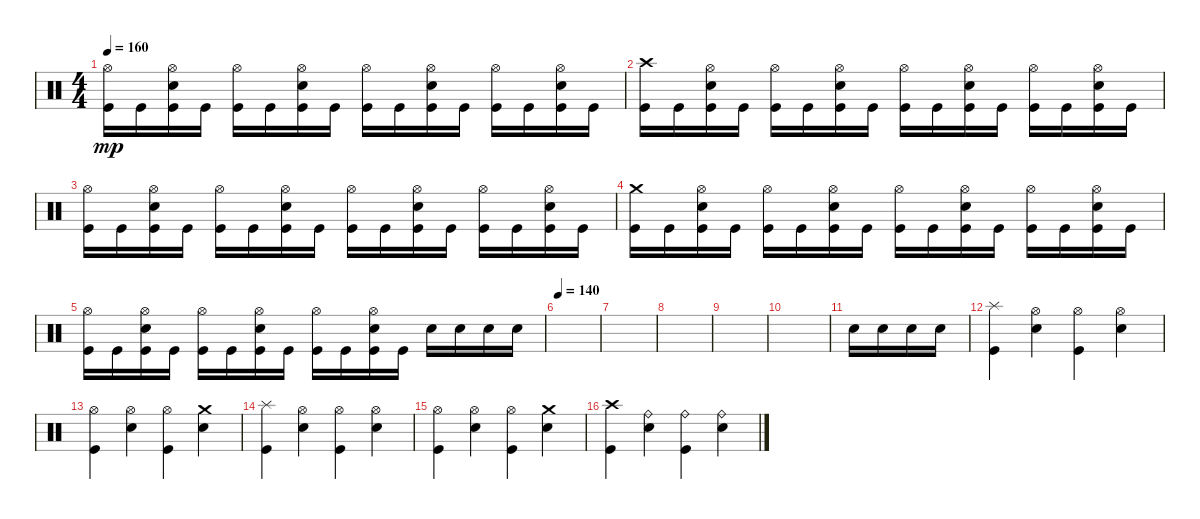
\track "" {instrument percussion}
\staff {score}
\articulation defaults
\ts (4 4)
\tempo 160
\clef neutral
\ks c
("Kick (hit)" "Hi-Hat (open)").16{dy mp} "Kick (hit)".16 ("Snare (hit) 2" "Hi-Hat (open)" "Kick (hit)").16 "Kick (hit)".16 ("Kick (hit)" "Hi-Hat (open)").16 "Kick (hit)".16 ("Snare (hit) 2" "Hi-Hat (open)" "Kick (hit)").16 "Kick (hit)".16 ("Kick (hit)" "Hi-Hat (open)").16 "Kick (hit)".16 ("Snare (hit) 2" "Hi-Hat (open)" "Kick (hit)").16 "Kick (hit)".16 ("Kick (hit)" "Hi-Hat (open)").16 "Kick (hit)".16 ("Snare (hit) 2" "Hi-Hat (open)" "Kick (hit)").16 "Kick (hit)".16 |
("Kick (hit)" "Crash high (hit)").16 "Kick (hit)".16 ("Snare (hit) 2" "Hi-Hat (open)" "Kick (hit)").16 "Kick (hit)".16 ("Kick (hit)" "Hi-Hat (open)").16 "Kick (hit)".16 ("Snare (hit) 2" "Hi-Hat (open)" "Kick (hit)").16 "Kick (hit)".16 ("Kick (hit)" "Hi-Hat (open)").16 "Kick (hit)".16 ("Snare (hit) 2" "Hi-Hat (open)" "Kick (hit)").16 "Kick (hit)".16 ("Kick (hit)" "Hi-Hat (open)").16 "Kick (hit)".16 ("Snare (hit) 2" "Hi-Hat (open)" "Kick (hit)").16 "Kick (hit)".16 |
("Kick (hit)" "Hi-Hat (open)").16 "Kick (hit)".16 ("Snare (hit) 2" "Hi-Hat (open)" "Kick (hit)").16 "Kick (hit)".16 ("Kick (hit)" "Hi-Hat (open)").16 "Kick (hit)".16 ("Snare (hit) 2" "Hi-Hat (open)" "Kick (hit)").16 "Kick (hit)".16 ("Kick (hit)" "Hi-Hat (open)").16 "Kick (hit)".16 ("Snare (hit) 2" "Hi-Hat (open)" "Kick (hit)").16 "Kick (hit)".16 ("Kick (hit)" "Hi-Hat (open)").16 "Kick (hit)".16 ("Snare (hit) 2" "Hi-Hat (open)" "Kick (hit)").16 "Kick (hit)".16 |
("Kick (hit)" "Crash medium (hit)").16 "Kick (hit)".16 ("Snare (hit) 2" "Hi-Hat (open)" "Kick (hit)").16 "Kick (hit)".16 ("Kick (hit)" "Hi-Hat (open)").16 "Kick (hit)".16 ("Snare (hit) 2" "Hi-Hat (open)" "Kick (hit)").16 "Kick (hit)".16 ("Kick (hit)" "Hi-Hat (open)").16 "Kick (hit)".16 ("Snare (hit) 2" "Hi-Hat (open)" "Kick (hit)").16 "Kick (hit)".16 ("Kick (hit)" "Hi-Hat (open)").16 "Kick (hit)".16 ("Snare (hit) 2" "Hi-Hat (open)" "Kick (hit)").16 "Kick (hit)".16 |
("Kick (hit)" "Hi-Hat (open)").16 "Kick (hit)".16 ("Snare (hit) 2" "Hi-Hat (open)" "Kick (hit)").16 "Kick (hit)".16 ("Kick (hit)" "Hi-Hat (open)").16 "Kick (hit)".16 ("Snare (hit) 2" "Hi-Hat (open)" "Kick (hit)").16 "Kick (hit)".16 ("Kick (hit)" "Hi-Hat (open)").16 "Kick (hit)".16 ("Snare (hit) 2" "Hi-Hat (open)" "Kick (hit)").16 "Kick (hit)".16 "Snare (hit) 2".16 "Snare (hit) 2".16 "Snare (hit) 2".16 "Snare (hit) 2".16 |
\tempo 140
|
|
|
|
|
"Snare (hit) 2".16 "Snare (hit) 2".16 "Snare (hit) 2".16 "Snare (hit) 2".16 |
("Kick (hit)" "Splash (hit)").4 ("Snare (hit) 2" "Hi-Hat (open)").4 ("Kick (hit)" "Hi-Hat (open)").4 ("Snare (hit) 2" "Hi-Hat (open)").4 |
("Kick (hit)" "Hi-Hat (open)").4 ("Snare (hit) 2" "Hi-Hat (open)").4 ("Kick (hit)" "Hi-Hat (open)").4 ("Snare (hit) 2" "Crash medium (hit)").4 |
("Kick (hit)" "Splash (hit)").4 ("Snare (hit) 2" "Hi-Hat (open)").4 ("Kick (hit)" "Hi-Hat (open)").4 ("Snare (hit) 2" "Hi-Hat (open)").4 |
("Kick (hit)" "Hi-Hat (open)").4 ("Snare (hit) 2" "Hi-Hat (open)").4 ("Kick (hit)" "Hi-Hat (open)").4 ("Snare (hit) 2" "Crash medium (hit)").4 |
("Crash high (hit)" "Kick (hit)").4 ("Snare (hit) 2" "Ride (bell)").4 ("Kick (hit)" "Ride (bell)").4 ("Snare (hit) 2" "Ride (bell)").4
